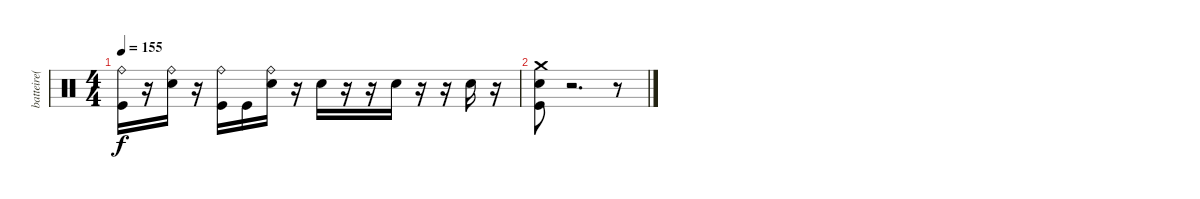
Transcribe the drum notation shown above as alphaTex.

\track ("batteire( Rob ) " "batteire( ") {instrument percussion}
\staff {score}
\articulation defaults
\ts (4 4)
\tempo 155
\clef neutral
\ks c
("Ride (bell)" "Kick (hit)").16{dy f} r.16 ("Ride (bell)" "Snare (hit) 2").16 r.16 ("Ride (bell)" "Kick (hit)").16 "Kick (hit)".16 ("Ride (bell)" "Snare (hit) 2").16 r.16 "Snare (hit) 2".16 r.16 r.16 "Snare (hit) 2".16 r.16 r.16 "Snare (hit) 2".16 r.16 |
("Crash medium (hit)" "Snare (hit) 2" "Kick (hit)").8 r.2{d} r.8
